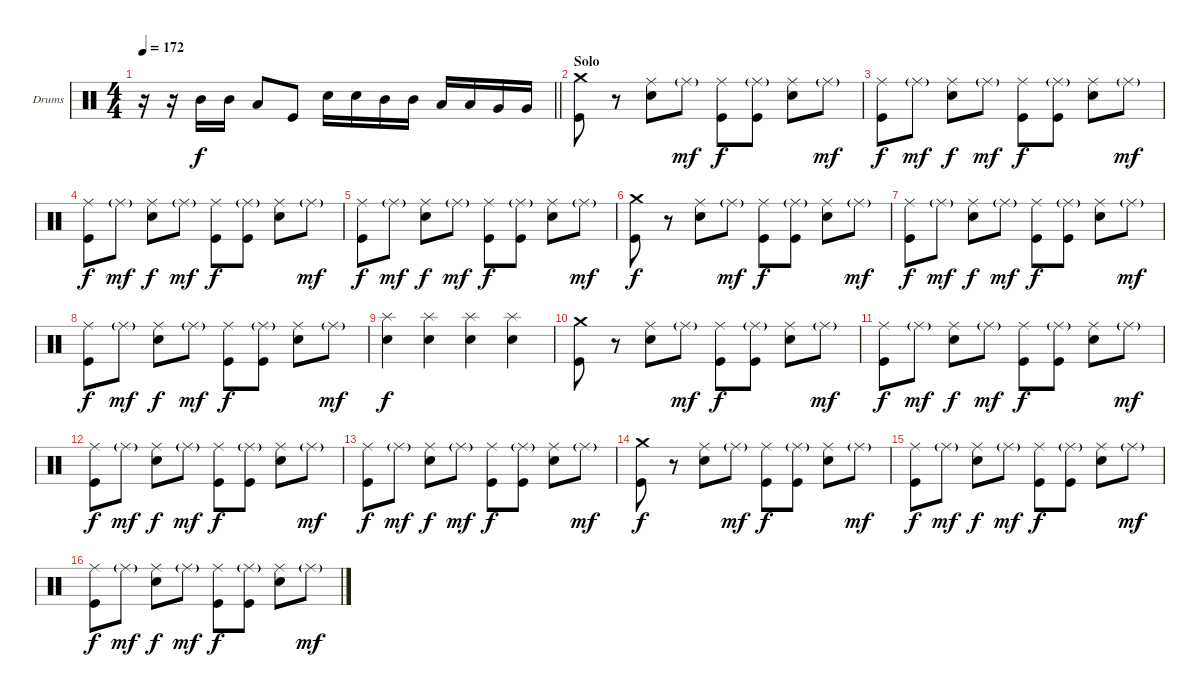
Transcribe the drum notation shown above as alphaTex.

\bracketExtendMode groupsimilarinstruments
\firstSystemTrackNameOrientation horizontal
\otherSystemsTrackNameOrientation horizontal
\track ("Drumkit" "Drums") {instrument percussion}
\staff {score}
\articulation defaults
\ts (4 4)
\tempo 172
\clef neutral
\barLineRight lightlight
\ks c
r.16{dy f} r.16 "Mid Tom (hit)".16 "Mid Tom (hit)".16 "Low Tom (hit)".8 "Kick (hit)".8 "Snare (hit) 2".16 "Snare (hit) 2".16 "Mid Tom (hit)".16 "Mid Tom (hit)".16 "Low Tom (hit)".16 "Low Tom (hit)".16 "Very Low Tom (hit)".16 "Very Low Tom (hit)".16 |
\section ("" "Solo")
("Crash medium (hit)" "Kick (hit)").8 r.8 ("Ride (middle)" "Snare (hit) 2").8 "Ride (middle)"{g}.8{dy mf} ("Ride (middle)" "Kick (hit)").8{dy f} ("Ride (middle)"{g} "Kick (hit)").8 ("Ride (middle)" "Snare (hit) 2").8 "Ride (middle)"{g}.8{dy mf} |
("Ride (middle)" "Kick (hit)").8{dy f} "Ride (middle)"{g}.8{dy mf} ("Ride (middle)" "Snare (hit) 2").8{dy f} "Ride (middle)"{g}.8{dy mf} ("Ride (middle)" "Kick (hit)").8{dy f} ("Ride (middle)"{g} "Kick (hit)").8 ("Ride (middle)" "Snare (hit) 2").8 "Ride (middle)"{g}.8{dy mf} |
("Ride (middle)" "Kick (hit)").8{dy f} "Ride (middle)"{g}.8{dy mf} ("Ride (middle)" "Snare (hit) 2").8{dy f} "Ride (middle)"{g}.8{dy mf} ("Ride (middle)" "Kick (hit)").8{dy f} ("Ride (middle)"{g} "Kick (hit)").8 ("Ride (middle)" "Snare (hit) 2").8 "Ride (middle)"{g}.8{dy mf} |
("Ride (middle)" "Kick (hit)").8{dy f} "Ride (middle)"{g}.8{dy mf} ("Ride (middle)" "Snare (hit) 2").8{dy f} "Ride (middle)"{g}.8{dy mf} ("Ride (middle)" "Kick (hit)").8{dy f} ("Ride (middle)"{g} "Kick (hit)").8 ("Ride (middle)" "Snare (hit) 2").8 "Ride (middle)"{g}.8{dy mf} |
("Crash medium (hit)" "Kick (hit)").8{dy f} r.8 ("Ride (middle)" "Snare (hit) 2").8 "Ride (middle)"{g}.8{dy mf} ("Ride (middle)" "Kick (hit)").8{dy f} ("Ride (middle)"{g} "Kick (hit)").8 ("Ride (middle)" "Snare (hit) 2").8 "Ride (middle)"{g}.8{dy mf} |
("Ride (middle)" "Kick (hit)").8{dy f} "Ride (middle)"{g}.8{dy mf} ("Ride (middle)" "Snare (hit) 2").8{dy f} "Ride (middle)"{g}.8{dy mf} ("Ride (middle)" "Kick (hit)").8{dy f} ("Ride (middle)"{g} "Kick (hit)").8 ("Ride (middle)" "Snare (hit) 2").8 "Ride (middle)"{g}.8{dy mf} |
("Ride (middle)" "Kick (hit)").8{dy f} "Ride (middle)"{g}.8{dy mf} ("Ride (middle)" "Snare (hit) 2").8{dy f} "Ride (middle)"{g}.8{dy mf} ("Ride (middle)" "Kick (hit)").8{dy f} ("Ride (middle)"{g} "Kick (hit)").8 ("Ride (middle)" "Snare (hit) 2").8 "Ride (middle)"{g}.8{dy mf} |
("Splash (hit)" "Snare (hit) 2").4{dy f} ("Splash (hit)" "Snare (hit) 2").4 ("Splash (hit)" "Snare (hit) 2").4 ("Splash (hit)" "Snare (hit) 2").4 |
("Crash medium (hit)" "Kick (hit)").8 r.8 ("Ride (middle)" "Snare (hit) 2").8 "Ride (middle)"{g}.8{dy mf} ("Ride (middle)" "Kick (hit)").8{dy f} ("Ride (middle)"{g} "Kick (hit)").8 ("Ride (middle)" "Snare (hit) 2").8 "Ride (middle)"{g}.8{dy mf} |
("Ride (middle)" "Kick (hit)").8{dy f} "Ride (middle)"{g}.8{dy mf} ("Ride (middle)" "Snare (hit) 2").8{dy f} "Ride (middle)"{g}.8{dy mf} ("Ride (middle)" "Kick (hit)").8{dy f} ("Ride (middle)"{g} "Kick (hit)").8 ("Ride (middle)" "Snare (hit) 2").8 "Ride (middle)"{g}.8{dy mf} |
("Ride (middle)" "Kick (hit)").8{dy f} "Ride (middle)"{g}.8{dy mf} ("Ride (middle)" "Snare (hit) 2").8{dy f} "Ride (middle)"{g}.8{dy mf} ("Ride (middle)" "Kick (hit)").8{dy f} ("Ride (middle)"{g} "Kick (hit)").8 ("Ride (middle)" "Snare (hit) 2").8 "Ride (middle)"{g}.8{dy mf} |
("Ride (middle)" "Kick (hit)").8{dy f} "Ride (middle)"{g}.8{dy mf} ("Ride (middle)" "Snare (hit) 2").8{dy f} "Ride (middle)"{g}.8{dy mf} ("Ride (middle)" "Kick (hit)").8{dy f} ("Ride (middle)"{g} "Kick (hit)").8 ("Ride (middle)" "Snare (hit) 2").8 "Ride (middle)"{g}.8{dy mf} |
("Crash medium (hit)" "Kick (hit)").8{dy f} r.8 ("Ride (middle)" "Snare (hit) 2").8 "Ride (middle)"{g}.8{dy mf} ("Ride (middle)" "Kick (hit)").8{dy f} ("Ride (middle)"{g} "Kick (hit)").8 ("Ride (middle)" "Snare (hit) 2").8 "Ride (middle)"{g}.8{dy mf} |
("Ride (middle)" "Kick (hit)").8{dy f} "Ride (middle)"{g}.8{dy mf} ("Ride (middle)" "Snare (hit) 2").8{dy f} "Ride (middle)"{g}.8{dy mf} ("Ride (middle)" "Kick (hit)").8{dy f} ("Ride (middle)"{g} "Kick (hit)").8 ("Ride (middle)" "Snare (hit) 2").8 "Ride (middle)"{g}.8{dy mf} |
("Ride (middle)" "Kick (hit)").8{dy f} "Ride (middle)"{g}.8{dy mf} ("Ride (middle)" "Snare (hit) 2").8{dy f} "Ride (middle)"{g}.8{dy mf} ("Ride (middle)" "Kick (hit)").8{dy f} ("Ride (middle)"{g} "Kick (hit)").8 ("Ride (middle)" "Snare (hit) 2").8 "Ride (middle)"{g}.8{dy mf}
